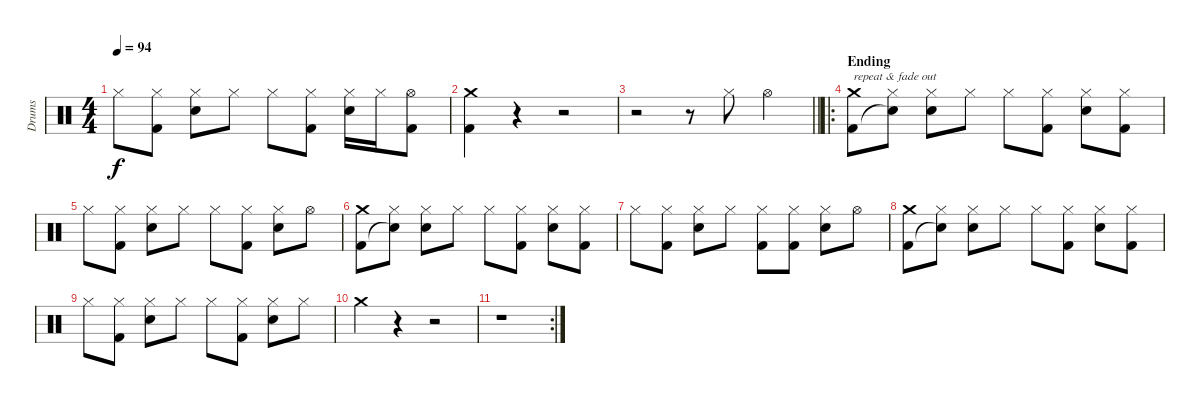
\track ("Drums" "Drums") {instrument percussion}
\staff {score}
\articulation defaults
\ts (4 4)
\tempo 94
\clef neutral
\ks aminor "Hi-Hat (closed)".8{dy f}
("Hi-Hat (closed)" "Kick (hit) 2").8 ("Hi-Hat (closed)" "Electric Snare (hit)").8 "Hi-Hat (closed)".8 "Hi-Hat (closed)".8 ("Hi-Hat (closed)" "Kick (hit) 2").8 ("Hi-Hat (closed)" "Electric Snare (hit)").16 "Hi-Hat (closed)".16 ("Hi-Hat (open)" "Kick (hit) 2").8 |
("Crash medium (hit)" "Kick (hit) 2").4 r.4 r.2 |
\barLineRight lightlight
r.2 r.8 "Hi-Hat (closed)".8 "Hi-Hat (open)".4 |
\ro
\section ("" "Ending")
("Crash medium (hit)" "Kick (hit) 2").8{txt "repeat & fade out"} ("Hi-Hat (closed)" "Snare (hit)"{t}).8 ("Hi-Hat (closed)" "Electric Snare (hit)").8 "Hi-Hat (closed)".8 "Hi-Hat (closed)".8 ("Hi-Hat (closed)" "Kick (hit) 2").8 ("Hi-Hat (closed)" "Electric Snare (hit)").8 ("Hi-Hat (closed)" "Kick (hit) 2").8 |
"Hi-Hat (closed)".8 ("Hi-Hat (closed)" "Kick (hit) 2").8 ("Hi-Hat (closed)" "Electric Snare (hit)").8 "Hi-Hat (closed)".8 "Hi-Hat (closed)".8 ("Hi-Hat (closed)" "Kick (hit) 2").8 ("Hi-Hat (closed)" "Electric Snare (hit)").8 "Hi-Hat (open)".8 |
("Crash medium (hit)" "Kick (hit) 2").8 ("Hi-Hat (closed)" "Snare (hit)"{t}).8 ("Hi-Hat (closed)" "Electric Snare (hit)").8 "Hi-Hat (closed)".8 "Hi-Hat (closed)".8 ("Hi-Hat (closed)" "Kick (hit) 2").8 ("Hi-Hat (closed)" "Electric Snare (hit)").8 ("Hi-Hat (closed)" "Kick (hit) 2").8 |
"Hi-Hat (closed)".8 ("Hi-Hat (closed)" "Kick (hit) 2").8 ("Hi-Hat (closed)" "Electric Snare (hit)").8 "Hi-Hat (closed)".8 ("Hi-Hat (closed)" "Kick (hit) 2").8 ("Hi-Hat (closed)" "Kick (hit) 2").8 ("Hi-Hat (closed)" "Electric Snare (hit)").8 "Hi-Hat (open)".8 |
("Crash medium (hit)" "Kick (hit) 2").8 ("Hi-Hat (closed)" "Snare (hit)"{t}).8 ("Hi-Hat (closed)" "Electric Snare (hit)").8 "Hi-Hat (closed)".8 "Hi-Hat (closed)".8 ("Hi-Hat (closed)" "Kick (hit) 2").8 ("Hi-Hat (closed)" "Electric Snare (hit)").8 ("Hi-Hat (closed)" "Kick (hit) 2").8 |
"Hi-Hat (closed)".8 ("Hi-Hat (closed)" "Kick (hit) 2").8 ("Hi-Hat (closed)" "Electric Snare (hit)").8 "Hi-Hat (closed)".8 "Hi-Hat (closed)".8 ("Hi-Hat (closed)" "Kick (hit) 2").8 ("Hi-Hat (closed)" "Electric Snare (hit)").8 "Hi-Hat (closed)".8 |
"Crash medium (hit)".4 r.4 r.2 |
\rc 2
r.1
